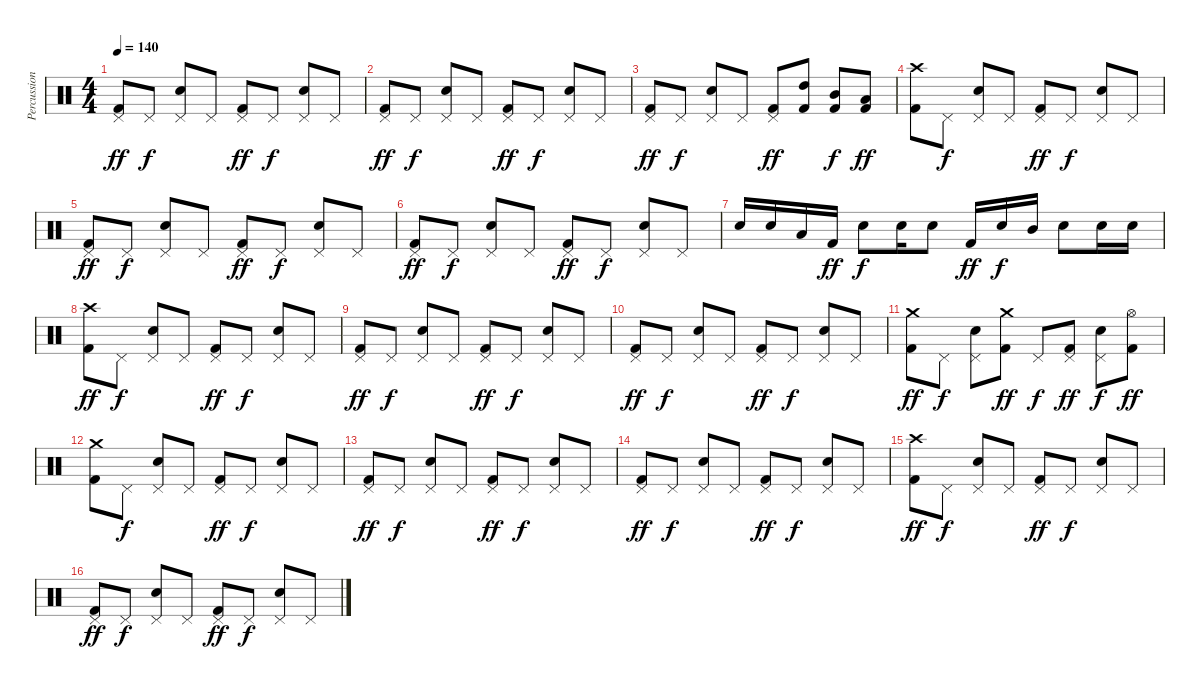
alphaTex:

\track ("Percussion" "Percussion") {instrument percussion}
\staff {score}
\articulation defaults
\ts (4 4)
\tempo 140
\clef neutral
\ks c
("Pedal Hi-Hat (hit)" "Kick (hit) 2").8{dy ff} "Pedal Hi-Hat (hit)".8{dy f} ("Pedal Hi-Hat (hit)" "Snare (hit) 2").8 "Pedal Hi-Hat (hit)".8 ("Pedal Hi-Hat (hit)" "Kick (hit) 2").8{dy ff} "Pedal Hi-Hat (hit)".8{dy f} ("Pedal Hi-Hat (hit)" "Snare (hit) 2").8 "Pedal Hi-Hat (hit)".8 |
("Pedal Hi-Hat (hit)" "Kick (hit) 2").8{dy ff} "Pedal Hi-Hat (hit)".8{dy f} ("Pedal Hi-Hat (hit)" "Snare (hit) 2").8 "Pedal Hi-Hat (hit)".8 ("Pedal Hi-Hat (hit)" "Kick (hit) 2").8{dy ff} "Pedal Hi-Hat (hit)".8{dy f} ("Pedal Hi-Hat (hit)" "Snare (hit) 2").8 "Pedal Hi-Hat (hit)".8 |
("Pedal Hi-Hat (hit)" "Kick (hit) 2").8{dy ff} "Pedal Hi-Hat (hit)".8{dy f} ("Pedal Hi-Hat (hit)" "Snare (hit) 2").8 "Pedal Hi-Hat (hit)".8 ("Pedal Hi-Hat (hit)" "Kick (hit) 2").8{dy ff} ("High Tom (hit)" "Kick (hit) 2").8 ("Mid Tom (hit)" "Kick (hit) 2").8{dy f} ("Low Tom (hit)" "Kick (hit) 2").8{dy ff} |
("Crash high (hit)" "Kick (hit) 2").8 "Pedal Hi-Hat (hit)".8{dy f} ("Pedal Hi-Hat (hit)" "Snare (hit) 2").8 "Pedal Hi-Hat (hit)".8 ("Pedal Hi-Hat (hit)" "Kick (hit) 2").8{dy ff} "Pedal Hi-Hat (hit)".8{dy f} ("Pedal Hi-Hat (hit)" "Snare (hit) 2").8 "Pedal Hi-Hat (hit)".8 |
("Pedal Hi-Hat (hit)" "Kick (hit) 2").8{dy ff} "Pedal Hi-Hat (hit)".8{dy f} ("Pedal Hi-Hat (hit)" "Snare (hit) 2").8 "Pedal Hi-Hat (hit)".8 ("Pedal Hi-Hat (hit)" "Kick (hit) 2").8{dy ff} "Pedal Hi-Hat (hit)".8{dy f} ("Pedal Hi-Hat (hit)" "Snare (hit) 2").8 "Pedal Hi-Hat (hit)".8 |
("Pedal Hi-Hat (hit)" "Kick (hit) 2").8{dy ff} "Pedal Hi-Hat (hit)".8{dy f} ("Pedal Hi-Hat (hit)" "Snare (hit) 2").8 "Pedal Hi-Hat (hit)".8 ("Pedal Hi-Hat (hit)" "Kick (hit) 2").8{dy ff} "Pedal Hi-Hat (hit)".8{dy f} ("Pedal Hi-Hat (hit)" "Snare (hit) 2").8 "Pedal Hi-Hat (hit)".8 |
"Snare (hit) 2".16 "Snare (hit) 2".16 "Low Tom (hit)".16 "Kick (hit) 2".16{dy ff} "Snare (hit) 2".8{dy f} "Snare (hit) 2".16 "Snare (hit) 2".8 "Kick (hit) 2".16{dy ff} "Snare (hit) 2".16{dy f} "Mid Tom (hit)".16 "Snare (hit) 2".8 "Snare (hit) 2".16 "Snare (hit) 2".16 |
("Crash high (hit)" "Kick (hit) 2").8{dy ff} "Pedal Hi-Hat (hit)".8{dy f} ("Pedal Hi-Hat (hit)" "Snare (hit) 2").8 "Pedal Hi-Hat (hit)".8 ("Pedal Hi-Hat (hit)" "Kick (hit) 2").8{dy ff} "Pedal Hi-Hat (hit)".8{dy f} ("Pedal Hi-Hat (hit)" "Snare (hit) 2").8 "Pedal Hi-Hat (hit)".8 |
("Pedal Hi-Hat (hit)" "Kick (hit) 2").8{dy ff} "Pedal Hi-Hat (hit)".8{dy f} ("Pedal Hi-Hat (hit)" "Snare (hit) 2").8 "Pedal Hi-Hat (hit)".8 ("Pedal Hi-Hat (hit)" "Kick (hit) 2").8{dy ff} "Pedal Hi-Hat (hit)".8{dy f} ("Pedal Hi-Hat (hit)" "Snare (hit) 2").8 "Pedal Hi-Hat (hit)".8 |
("Pedal Hi-Hat (hit)" "Kick (hit) 2").8{dy ff} "Pedal Hi-Hat (hit)".8{dy f} ("Pedal Hi-Hat (hit)" "Snare (hit) 2").8 "Pedal Hi-Hat (hit)".8 ("Pedal Hi-Hat (hit)" "Kick (hit) 2").8{dy ff} "Pedal Hi-Hat (hit)".8{dy f} ("Pedal Hi-Hat (hit)" "Snare (hit) 2").8 "Pedal Hi-Hat (hit)".8 |
("Crash medium (hit)" "Kick (hit) 2").8{dy ff} "Pedal Hi-Hat (hit)".8{dy f} ("Pedal Hi-Hat (hit)" "Snare (hit) 2").8 ("Crash medium (hit)" "Kick (hit) 2").8{dy ff} "Pedal Hi-Hat (hit)".8{dy f} ("Pedal Hi-Hat (hit)" "Kick (hit) 2").8{dy ff} ("Pedal Hi-Hat (hit)" "Snare (hit) 2").8{dy f} ("Hi-Hat (open)" "Kick (hit) 2").8{dy ff} |
("Crash medium (hit)" "Kick (hit) 2").8 "Pedal Hi-Hat (hit)".8{dy f} ("Pedal Hi-Hat (hit)" "Snare (hit) 2").8 "Pedal Hi-Hat (hit)".8 ("Pedal Hi-Hat (hit)" "Kick (hit) 2").8{dy ff} "Pedal Hi-Hat (hit)".8{dy f} ("Pedal Hi-Hat (hit)" "Snare (hit) 2").8 "Pedal Hi-Hat (hit)".8 |
("Pedal Hi-Hat (hit)" "Kick (hit) 2").8{dy ff} "Pedal Hi-Hat (hit)".8{dy f} ("Pedal Hi-Hat (hit)" "Snare (hit) 2").8 "Pedal Hi-Hat (hit)".8 ("Pedal Hi-Hat (hit)" "Kick (hit) 2").8{dy ff} "Pedal Hi-Hat (hit)".8{dy f} ("Pedal Hi-Hat (hit)" "Snare (hit) 2").8 "Pedal Hi-Hat (hit)".8 |
("Pedal Hi-Hat (hit)" "Kick (hit) 2").8{dy ff} "Pedal Hi-Hat (hit)".8{dy f} ("Pedal Hi-Hat (hit)" "Snare (hit) 2").8 "Pedal Hi-Hat (hit)".8 ("Pedal Hi-Hat (hit)" "Kick (hit) 2").8{dy ff} "Pedal Hi-Hat (hit)".8{dy f} ("Pedal Hi-Hat (hit)" "Snare (hit) 2").8 "Pedal Hi-Hat (hit)".8 |
("Crash high (hit)" "Kick (hit) 2").8{dy ff} "Pedal Hi-Hat (hit)".8{dy f} ("Pedal Hi-Hat (hit)" "Snare (hit) 2").8 "Pedal Hi-Hat (hit)".8 ("Pedal Hi-Hat (hit)" "Kick (hit) 2").8{dy ff} "Pedal Hi-Hat (hit)".8{dy f} ("Pedal Hi-Hat (hit)" "Snare (hit) 2").8 "Pedal Hi-Hat (hit)".8 |
("Pedal Hi-Hat (hit)" "Kick (hit) 2").8{dy ff} "Pedal Hi-Hat (hit)".8{dy f} ("Pedal Hi-Hat (hit)" "Snare (hit) 2").8 "Pedal Hi-Hat (hit)".8 ("Pedal Hi-Hat (hit)" "Kick (hit) 2").8{dy ff} "Pedal Hi-Hat (hit)".8{dy f} ("Pedal Hi-Hat (hit)" "Snare (hit) 2").8 "Pedal Hi-Hat (hit)".8
